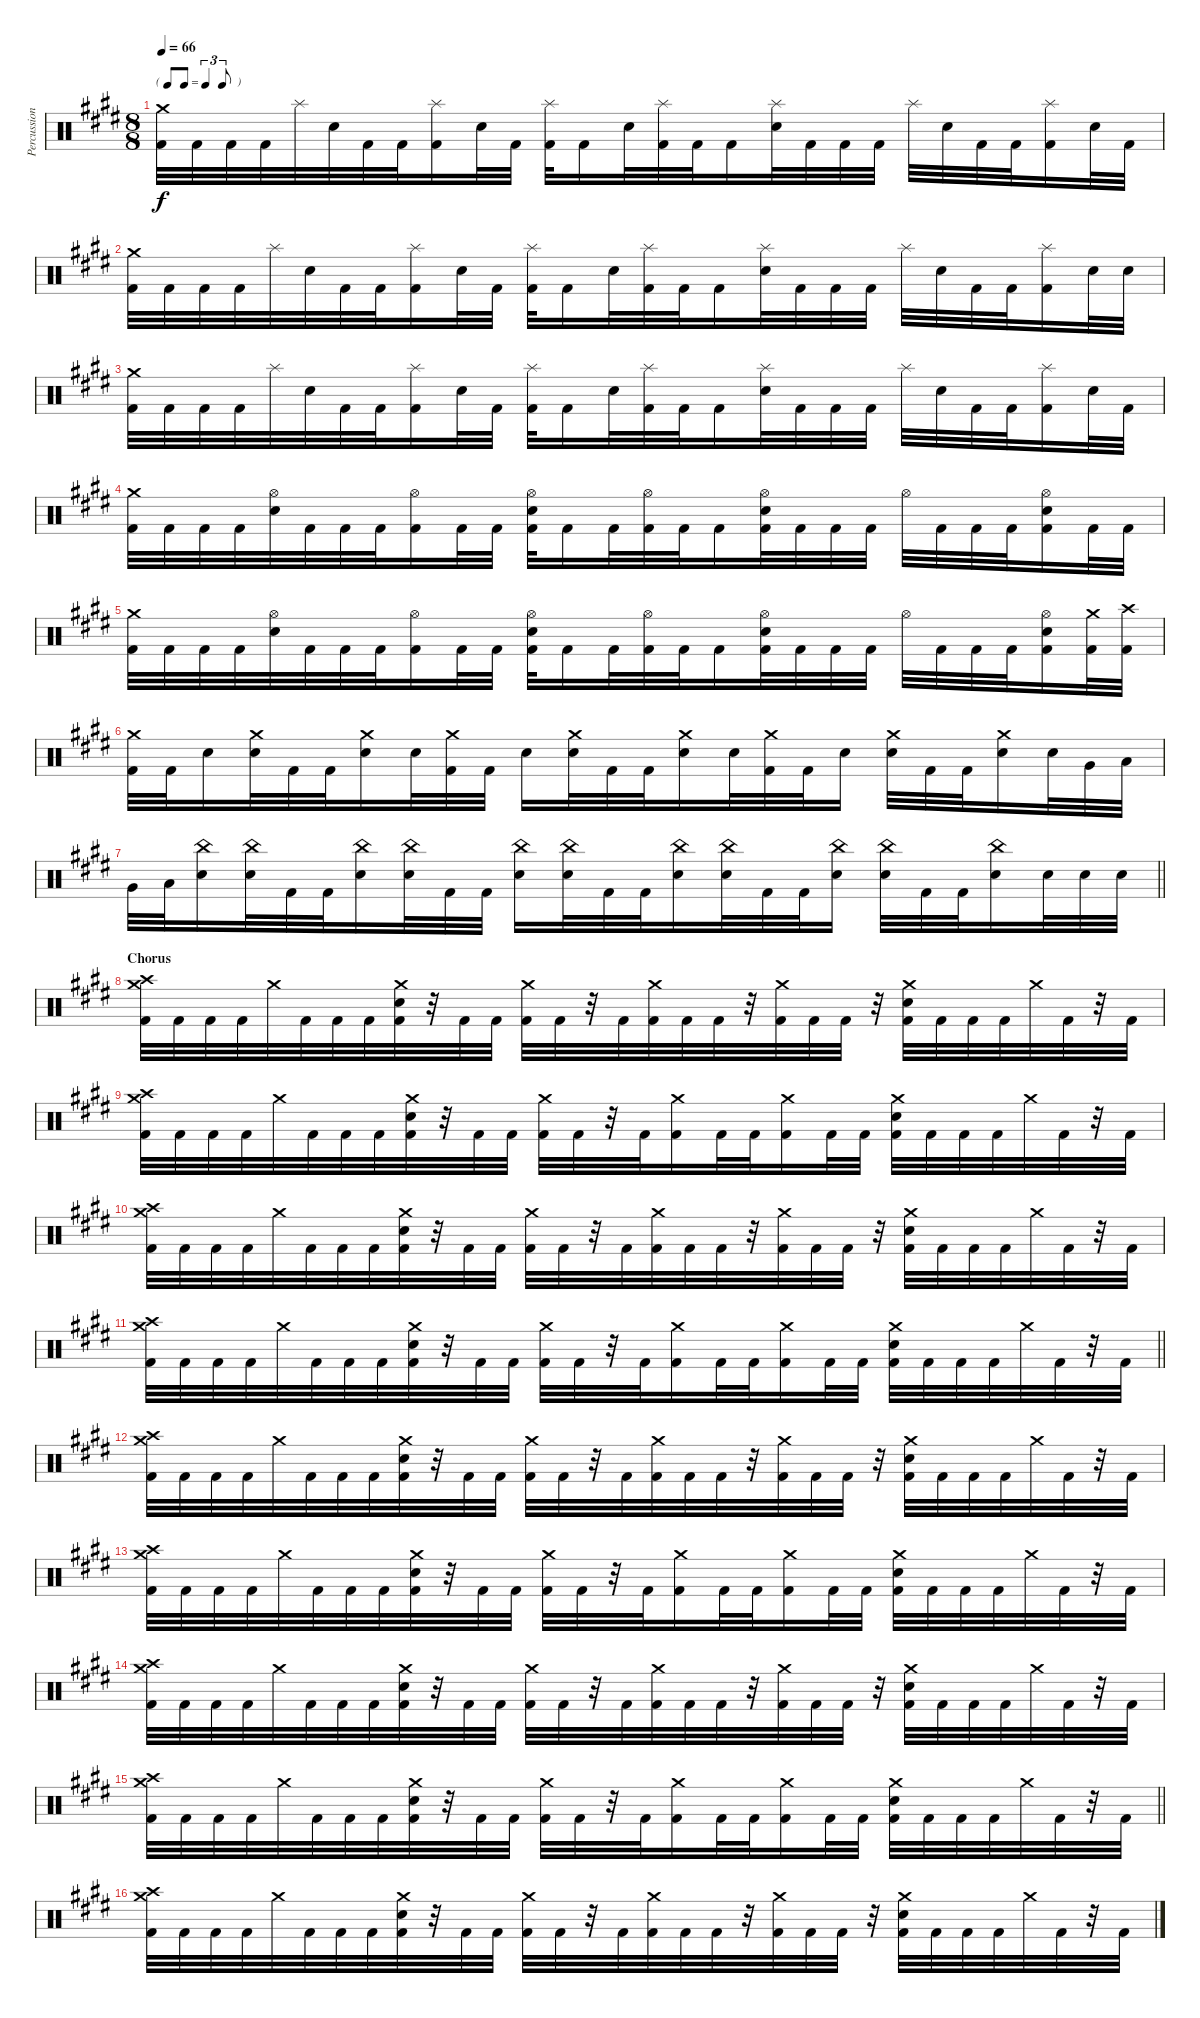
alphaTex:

\track ("Percussion" "Percussion") {instrument percussion}
\staff {score}
\articulation defaults
\ts (8 8)
\tf triplet8th
\tempo 66
\clef neutral
\ks c#minor
("Crash medium (hit)" "Kick (hit) 2").32{dy f} "Kick (hit) 2".32 "Kick (hit) 2".32 "Kick (hit) 2".32 "Splash (hit)".32 "Electric Snare (hit)".32 "Kick (hit) 2".32 "Kick (hit) 2".32 ("Splash (hit)" "Kick (hit) 2").16 "Electric Snare (hit)".32 "Kick (hit) 2".32 ("Splash (hit)" "Kick (hit) 2").32 "Kick (hit) 2".16 "Electric Snare (hit)".32 ("Splash (hit)" "Kick (hit) 2").32 "Kick (hit) 2".32 "Kick (hit) 2".16 ("Splash (hit)" "Electric Snare (hit)").32 "Kick (hit) 2".32 "Kick (hit) 2".32 "Kick (hit) 2".32 "Splash (hit)".32 "Electric Snare (hit)".32 "Kick (hit) 2".32 "Kick (hit) 2".32 ("Splash (hit)" "Kick (hit) 2").16 "Electric Snare (hit)".32 "Kick (hit) 2".32 |
("Crash medium (hit)" "Kick (hit) 2").32 "Kick (hit) 2".32 "Kick (hit) 2".32 "Kick (hit) 2".32 "Splash (hit)".32 "Electric Snare (hit)".32 "Kick (hit) 2".32 "Kick (hit) 2".32 ("Splash (hit)" "Kick (hit) 2").16 "Electric Snare (hit)".32 "Kick (hit) 2".32 ("Splash (hit)" "Kick (hit) 2").32 "Kick (hit) 2".16 "Electric Snare (hit)".32 ("Splash (hit)" "Kick (hit) 2").32 "Kick (hit) 2".32 "Kick (hit) 2".16 ("Splash (hit)" "Electric Snare (hit)").32 "Kick (hit) 2".32 "Kick (hit) 2".32 "Kick (hit) 2".32 "Splash (hit)".32 "Electric Snare (hit)".32 "Kick (hit) 2".32 "Kick (hit) 2".32 ("Splash (hit)" "Kick (hit) 2").16 "Electric Snare (hit)".32 "Electric Snare (hit)".32 |
("Crash medium (hit)" "Kick (hit) 2").32 "Kick (hit) 2".32 "Kick (hit) 2".32 "Kick (hit) 2".32 "Splash (hit)".32 "Electric Snare (hit)".32 "Kick (hit) 2".32 "Kick (hit) 2".32 ("Splash (hit)" "Kick (hit) 2").16 "Electric Snare (hit)".32 "Kick (hit) 2".32 ("Splash (hit)" "Kick (hit) 2").32 "Kick (hit) 2".16 "Electric Snare (hit)".32 ("Splash (hit)" "Kick (hit) 2").32 "Kick (hit) 2".32 "Kick (hit) 2".16 ("Splash (hit)" "Electric Snare (hit)").32 "Kick (hit) 2".32 "Kick (hit) 2".32 "Kick (hit) 2".32 "Splash (hit)".32 "Electric Snare (hit)".32 "Kick (hit) 2".32 "Kick (hit) 2".32 ("Splash (hit)" "Kick (hit) 2").16 "Electric Snare (hit)".32 "Kick (hit) 2".32 |
("Crash medium (hit)" "Kick (hit) 2").32 "Kick (hit) 2".32 "Kick (hit) 2".32 "Kick (hit) 2".32 ("Hi-Hat (open)" "Electric Snare (hit)").32 "Kick (hit) 2".32 "Kick (hit) 2".32 "Kick (hit) 2".32 ("Hi-Hat (open)" "Kick (hit) 2").16 "Kick (hit) 2".32 "Kick (hit) 2".32 ("Hi-Hat (open)" "Electric Snare (hit)" "Kick (hit) 2").32 "Kick (hit) 2".16 "Kick (hit) 2".32 ("Hi-Hat (open)" "Kick (hit) 2").32 "Kick (hit) 2".32 "Kick (hit) 2".16 ("Hi-Hat (open)" "Electric Snare (hit)" "Kick (hit) 2").32 "Kick (hit) 2".32 "Kick (hit) 2".32 "Kick (hit) 2".32 "Hi-Hat (open)".32 "Kick (hit) 2".32 "Kick (hit) 2".32 "Kick (hit) 2".32 ("Hi-Hat (open)" "Electric Snare (hit)" "Kick (hit) 2").16 "Kick (hit) 2".32 "Kick (hit) 2".32 |
("Crash medium (hit)" "Kick (hit) 2").32 "Kick (hit) 2".32 "Kick (hit) 2".32 "Kick (hit) 2".32 ("Hi-Hat (open)" "Electric Snare (hit)").32 "Kick (hit) 2".32 "Kick (hit) 2".32 "Kick (hit) 2".32 ("Hi-Hat (open)" "Kick (hit) 2").16 "Kick (hit) 2".32 "Kick (hit) 2".32 ("Hi-Hat (open)" "Electric Snare (hit)" "Kick (hit) 2").32 "Kick (hit) 2".16 "Kick (hit) 2".32 ("Hi-Hat (open)" "Kick (hit) 2").32 "Kick (hit) 2".32 "Kick (hit) 2".16 ("Hi-Hat (open)" "Electric Snare (hit)" "Kick (hit) 2").32 "Kick (hit) 2".32 "Kick (hit) 2".32 "Kick (hit) 2".32 "Hi-Hat (open)".32 "Kick (hit) 2".32 "Kick (hit) 2".32 "Kick (hit) 2".32 ("Hi-Hat (open)" "Electric Snare (hit)" "Kick (hit) 2").16 ("Crash medium (hit)" "Kick (hit) 2").32 ("Crash high (hit)" "Kick (hit) 2").32 |
("Crash medium (hit)" "Kick (hit) 2").32 "Kick (hit) 2".32 "Electric Snare (hit)".16 ("Crash medium (hit)" "Electric Snare (hit)").32 "Kick (hit) 2".32 "Kick (hit) 2".32 ("Crash medium (hit)" "Electric Snare (hit)").16 "Electric Snare (hit)".32 ("Crash medium (hit)" "Kick (hit) 2").32 "Kick (hit) 2".32 "Electric Snare (hit)".16 ("Crash medium (hit)" "Electric Snare (hit)").32 "Kick (hit) 2".32 "Kick (hit) 2".32 ("Crash medium (hit)" "Electric Snare (hit)").16 "Electric Snare (hit)".32 ("Crash medium (hit)" "Kick (hit) 2").32 "Kick (hit) 2".32 "Electric Snare (hit)".16 ("Crash medium (hit)" "Electric Snare (hit)").32 "Kick (hit) 2".32 "Kick (hit) 2".32 ("Crash medium (hit)" "Electric Snare (hit)").16 "Electric Snare (hit)".32 "Very Low Tom (hit)".32 "Low Floor Tom (hit)".32 |
\barLineRight lightlight "Very Low Tom (hit)".32 "Low Floor Tom (hit)".32
("China (hit)" "Electric Snare (hit)").16 ("China (hit)" "Electric Snare (hit)").32 "Kick (hit) 2".32 "Kick (hit) 2".32 ("China (hit)" "Electric Snare (hit)").16 ("China (hit)" "Electric Snare (hit)").32 "Kick (hit) 2".32 "Kick (hit) 2".32 ("China (hit)" "Electric Snare (hit)").16 ("China (hit)" "Electric Snare (hit)").32 "Kick (hit) 2".32 "Kick (hit) 2".32 ("China (hit)" "Electric Snare (hit)").16 ("China (hit)" "Electric Snare (hit)").32 "Kick (hit) 2".32 "Kick (hit) 2".32 ("China (hit)" "Electric Snare (hit)").16 ("China (hit)" "Electric Snare (hit)").32 "Kick (hit) 2".32 "Kick (hit) 2".32 ("China (hit)" "Electric Snare (hit)").16 "Electric Snare (hit)".32 "Electric Snare (hit)".32 "Electric Snare (hit)".32 |
\section ("" "Chorus")
("Crash medium (hit)" "Crash high (hit)" "Kick (hit) 2").32 "Kick (hit) 2".32 "Kick (hit) 2".32 "Kick (hit) 2".32 "Crash medium (hit)".32 "Kick (hit) 2".32 "Kick (hit) 2".32 "Kick (hit) 2".32 ("Crash medium (hit)" "Electric Snare (hit)" "Kick (hit) 2").32 r.32 "Kick (hit) 2".32 "Kick (hit) 2".32 ("Crash medium (hit)" "Kick (hit) 2").32 "Kick (hit) 2".32 r.32 "Kick (hit) 2".32 ("Crash medium (hit)" "Kick (hit) 2").32 "Kick (hit) 2".32 "Kick (hit) 2".32 r.32 ("Crash medium (hit)" "Kick (hit) 2").32 "Kick (hit) 2".32 "Kick (hit) 2".32 r.32 ("Crash medium (hit)" "Electric Snare (hit)" "Kick (hit) 2").32 "Kick (hit) 2".32 "Kick (hit) 2".32 "Kick (hit) 2".32 "Crash medium (hit)".32 "Kick (hit) 2".32 r.32 "Kick (hit) 2".32 |
("Crash medium (hit)" "Crash high (hit)" "Kick (hit) 2").32 "Kick (hit) 2".32 "Kick (hit) 2".32 "Kick (hit) 2".32 "Crash medium (hit)".32 "Kick (hit) 2".32 "Kick (hit) 2".32 "Kick (hit) 2".32 ("Crash medium (hit)" "Electric Snare (hit)" "Kick (hit) 2").32 r.32 "Kick (hit) 2".32 "Kick (hit) 2".32 ("Crash medium (hit)" "Kick (hit) 2").32 "Kick (hit) 2".32 r.32 "Kick (hit) 2".32 ("Crash medium (hit)" "Kick (hit) 2").16 "Kick (hit) 2".32 "Kick (hit) 2".32 ("Crash medium (hit)" "Kick (hit) 2").16 "Kick (hit) 2".32 "Kick (hit) 2".32 ("Crash medium (hit)" "Electric Snare (hit)" "Kick (hit) 2").32 "Kick (hit) 2".32 "Kick (hit) 2".32 "Kick (hit) 2".32 "Crash medium (hit)".32 "Kick (hit) 2".32 r.32 "Kick (hit) 2".32 |
("Crash medium (hit)" "Crash high (hit)" "Kick (hit) 2").32 "Kick (hit) 2".32 "Kick (hit) 2".32 "Kick (hit) 2".32 "Crash medium (hit)".32 "Kick (hit) 2".32 "Kick (hit) 2".32 "Kick (hit) 2".32 ("Crash medium (hit)" "Electric Snare (hit)" "Kick (hit) 2").32 r.32 "Kick (hit) 2".32 "Kick (hit) 2".32 ("Crash medium (hit)" "Kick (hit) 2").32 "Kick (hit) 2".32 r.32 "Kick (hit) 2".32 ("Crash medium (hit)" "Kick (hit) 2").32 "Kick (hit) 2".32 "Kick (hit) 2".32 r.32 ("Crash medium (hit)" "Kick (hit) 2").32 "Kick (hit) 2".32 "Kick (hit) 2".32 r.32 ("Crash medium (hit)" "Electric Snare (hit)" "Kick (hit) 2").32 "Kick (hit) 2".32 "Kick (hit) 2".32 "Kick (hit) 2".32 "Crash medium (hit)".32 "Kick (hit) 2".32 r.32 "Kick (hit) 2".32 |
\barLineRight lightlight
("Crash medium (hit)" "Crash high (hit)" "Kick (hit) 2").32 "Kick (hit) 2".32 "Kick (hit) 2".32 "Kick (hit) 2".32 "Crash medium (hit)".32 "Kick (hit) 2".32 "Kick (hit) 2".32 "Kick (hit) 2".32 ("Crash medium (hit)" "Electric Snare (hit)" "Kick (hit) 2").32 r.32 "Kick (hit) 2".32 "Kick (hit) 2".32 ("Crash medium (hit)" "Kick (hit) 2").32 "Kick (hit) 2".32 r.32 "Kick (hit) 2".32 ("Crash medium (hit)" "Kick (hit) 2").16 "Kick (hit) 2".32 "Kick (hit) 2".32 ("Crash medium (hit)" "Kick (hit) 2").16 "Kick (hit) 2".32 "Kick (hit) 2".32 ("Crash medium (hit)" "Electric Snare (hit)" "Kick (hit) 2").32 "Kick (hit) 2".32 "Kick (hit) 2".32 "Kick (hit) 2".32 "Crash medium (hit)".32 "Kick (hit) 2".32 r.32 "Kick (hit) 2".32 |
("Crash medium (hit)" "Crash high (hit)" "Kick (hit) 2").32 "Kick (hit) 2".32 "Kick (hit) 2".32 "Kick (hit) 2".32 "Crash medium (hit)".32 "Kick (hit) 2".32 "Kick (hit) 2".32 "Kick (hit) 2".32 ("Crash medium (hit)" "Electric Snare (hit)" "Kick (hit) 2").32 r.32 "Kick (hit) 2".32 "Kick (hit) 2".32 ("Crash medium (hit)" "Kick (hit) 2").32 "Kick (hit) 2".32 r.32 "Kick (hit) 2".32 ("Crash medium (hit)" "Kick (hit) 2").32 "Kick (hit) 2".32 "Kick (hit) 2".32 r.32 ("Crash medium (hit)" "Kick (hit) 2").32 "Kick (hit) 2".32 "Kick (hit) 2".32 r.32 ("Crash medium (hit)" "Electric Snare (hit)" "Kick (hit) 2").32 "Kick (hit) 2".32 "Kick (hit) 2".32 "Kick (hit) 2".32 "Crash medium (hit)".32 "Kick (hit) 2".32 r.32 "Kick (hit) 2".32 |
("Crash medium (hit)" "Crash high (hit)" "Kick (hit) 2").32 "Kick (hit) 2".32 "Kick (hit) 2".32 "Kick (hit) 2".32 "Crash medium (hit)".32 "Kick (hit) 2".32 "Kick (hit) 2".32 "Kick (hit) 2".32 ("Crash medium (hit)" "Electric Snare (hit)" "Kick (hit) 2").32 r.32 "Kick (hit) 2".32 "Kick (hit) 2".32 ("Crash medium (hit)" "Kick (hit) 2").32 "Kick (hit) 2".32 r.32 "Kick (hit) 2".32 ("Crash medium (hit)" "Kick (hit) 2").16 "Kick (hit) 2".32 "Kick (hit) 2".32 ("Crash medium (hit)" "Kick (hit) 2").16 "Kick (hit) 2".32 "Kick (hit) 2".32 ("Crash medium (hit)" "Electric Snare (hit)" "Kick (hit) 2").32 "Kick (hit) 2".32 "Kick (hit) 2".32 "Kick (hit) 2".32 "Crash medium (hit)".32 "Kick (hit) 2".32 r.32 "Kick (hit) 2".32 |
("Crash medium (hit)" "Crash high (hit)" "Kick (hit) 2").32 "Kick (hit) 2".32 "Kick (hit) 2".32 "Kick (hit) 2".32 "Crash medium (hit)".32 "Kick (hit) 2".32 "Kick (hit) 2".32 "Kick (hit) 2".32 ("Crash medium (hit)" "Electric Snare (hit)" "Kick (hit) 2").32 r.32 "Kick (hit) 2".32 "Kick (hit) 2".32 ("Crash medium (hit)" "Kick (hit) 2").32 "Kick (hit) 2".32 r.32 "Kick (hit) 2".32 ("Crash medium (hit)" "Kick (hit) 2").32 "Kick (hit) 2".32 "Kick (hit) 2".32 r.32 ("Crash medium (hit)" "Kick (hit) 2").32 "Kick (hit) 2".32 "Kick (hit) 2".32 r.32 ("Crash medium (hit)" "Electric Snare (hit)" "Kick (hit) 2").32 "Kick (hit) 2".32 "Kick (hit) 2".32 "Kick (hit) 2".32 "Crash medium (hit)".32 "Kick (hit) 2".32 r.32 "Kick (hit) 2".32 |
\barLineRight lightlight
("Crash medium (hit)" "Crash high (hit)" "Kick (hit) 2").32 "Kick (hit) 2".32 "Kick (hit) 2".32 "Kick (hit) 2".32 "Crash medium (hit)".32 "Kick (hit) 2".32 "Kick (hit) 2".32 "Kick (hit) 2".32 ("Crash medium (hit)" "Electric Snare (hit)" "Kick (hit) 2").32 r.32 "Kick (hit) 2".32 "Kick (hit) 2".32 ("Crash medium (hit)" "Kick (hit) 2").32 "Kick (hit) 2".32 r.32 "Kick (hit) 2".32 ("Crash medium (hit)" "Kick (hit) 2").16 "Kick (hit) 2".32 "Kick (hit) 2".32 ("Crash medium (hit)" "Kick (hit) 2").16 "Kick (hit) 2".32 "Kick (hit) 2".32 ("Crash medium (hit)" "Electric Snare (hit)" "Kick (hit) 2").32 "Kick (hit) 2".32 "Kick (hit) 2".32 "Kick (hit) 2".32 "Crash medium (hit)".32 "Kick (hit) 2".32 r.32 "Kick (hit) 2".32 |
("Crash medium (hit)" "Crash high (hit)" "Kick (hit) 2").32 "Kick (hit) 2".32 "Kick (hit) 2".32 "Kick (hit) 2".32 "Crash medium (hit)".32 "Kick (hit) 2".32 "Kick (hit) 2".32 "Kick (hit) 2".32 ("Crash medium (hit)" "Electric Snare (hit)" "Kick (hit) 2").32 r.32 "Kick (hit) 2".32 "Kick (hit) 2".32 ("Crash medium (hit)" "Kick (hit) 2").32 "Kick (hit) 2".32 r.32 "Kick (hit) 2".32 ("Crash medium (hit)" "Kick (hit) 2").32 "Kick (hit) 2".32 "Kick (hit) 2".32 r.32 ("Crash medium (hit)" "Kick (hit) 2").32 "Kick (hit) 2".32 "Kick (hit) 2".32 r.32 ("Crash medium (hit)" "Electric Snare (hit)" "Kick (hit) 2").32 "Kick (hit) 2".32 "Kick (hit) 2".32 "Kick (hit) 2".32 "Crash medium (hit)".32 "Kick (hit) 2".32 r.32 "Kick (hit) 2".32
